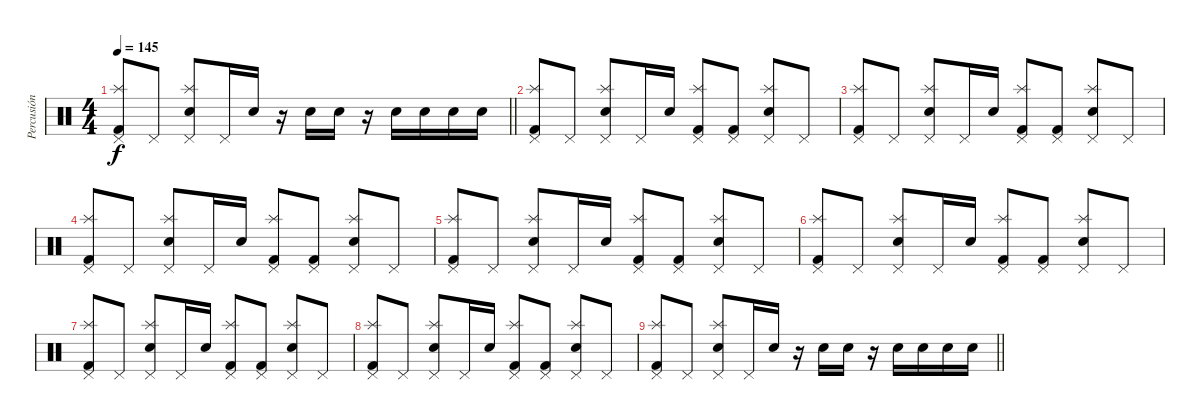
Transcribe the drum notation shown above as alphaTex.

\track ("Percusión" "Percusión") {instrument percussion}
\staff {score}
\articulation defaults
\ts (4 4)
\tempo 145
\clef neutral
\barLineRight lightlight
\ks c
("Pedal Hi-Hat (hit)" "Splash (hit)" "Kick (hit) 2").8{dy f} "Pedal Hi-Hat (hit)".8 ("Pedal Hi-Hat (hit)" "Splash (hit)" "Electric Snare (hit)").8 "Pedal Hi-Hat (hit)".16 "Electric Snare (hit)".16 r.16 "Electric Snare (hit)".16 "Electric Snare (hit)".16 r.16 "Electric Snare (hit)".16 "Electric Snare (hit)".16 "Electric Snare (hit)".16 "Electric Snare (hit)".16 |
("Pedal Hi-Hat (hit)" "Splash (hit)" "Kick (hit) 2").8 "Pedal Hi-Hat (hit)".8 ("Pedal Hi-Hat (hit)" "Splash (hit)" "Electric Snare (hit)").8 "Pedal Hi-Hat (hit)".16 "Electric Snare (hit)".16 ("Pedal Hi-Hat (hit)" "Splash (hit)" "Kick (hit) 2").8 ("Pedal Hi-Hat (hit)" "Kick (hit) 2").8 ("Pedal Hi-Hat (hit)" "Splash (hit)" "Electric Snare (hit)").8 "Pedal Hi-Hat (hit)".8 |
("Pedal Hi-Hat (hit)" "Splash (hit)" "Kick (hit) 2").8 "Pedal Hi-Hat (hit)".8 ("Pedal Hi-Hat (hit)" "Splash (hit)" "Electric Snare (hit)").8 "Pedal Hi-Hat (hit)".16 "Electric Snare (hit)".16 ("Pedal Hi-Hat (hit)" "Splash (hit)" "Kick (hit) 2").8 ("Pedal Hi-Hat (hit)" "Kick (hit) 2").8 ("Pedal Hi-Hat (hit)" "Splash (hit)" "Electric Snare (hit)").8 "Pedal Hi-Hat (hit)".8 |
("Pedal Hi-Hat (hit)" "Splash (hit)" "Kick (hit) 2").8 "Pedal Hi-Hat (hit)".8 ("Pedal Hi-Hat (hit)" "Splash (hit)" "Electric Snare (hit)").8 "Pedal Hi-Hat (hit)".16 "Electric Snare (hit)".16 ("Pedal Hi-Hat (hit)" "Splash (hit)" "Kick (hit) 2").8 ("Pedal Hi-Hat (hit)" "Kick (hit) 2").8 ("Pedal Hi-Hat (hit)" "Splash (hit)" "Electric Snare (hit)").8 "Pedal Hi-Hat (hit)".8 |
("Pedal Hi-Hat (hit)" "Splash (hit)" "Kick (hit) 2").8 "Pedal Hi-Hat (hit)".8 ("Pedal Hi-Hat (hit)" "Splash (hit)" "Electric Snare (hit)").8 "Pedal Hi-Hat (hit)".16 "Electric Snare (hit)".16 ("Pedal Hi-Hat (hit)" "Splash (hit)" "Kick (hit) 2").8 ("Pedal Hi-Hat (hit)" "Kick (hit) 2").8 ("Pedal Hi-Hat (hit)" "Splash (hit)" "Electric Snare (hit)").8 "Pedal Hi-Hat (hit)".8 |
("Pedal Hi-Hat (hit)" "Splash (hit)" "Kick (hit) 2").8 "Pedal Hi-Hat (hit)".8 ("Pedal Hi-Hat (hit)" "Splash (hit)" "Electric Snare (hit)").8 "Pedal Hi-Hat (hit)".16 "Electric Snare (hit)".16 ("Pedal Hi-Hat (hit)" "Splash (hit)" "Kick (hit) 2").8 ("Pedal Hi-Hat (hit)" "Kick (hit) 2").8 ("Pedal Hi-Hat (hit)" "Splash (hit)" "Electric Snare (hit)").8 "Pedal Hi-Hat (hit)".8 |
("Pedal Hi-Hat (hit)" "Splash (hit)" "Kick (hit) 2").8 "Pedal Hi-Hat (hit)".8 ("Pedal Hi-Hat (hit)" "Splash (hit)" "Electric Snare (hit)").8 "Pedal Hi-Hat (hit)".16 "Electric Snare (hit)".16 ("Pedal Hi-Hat (hit)" "Splash (hit)" "Kick (hit) 2").8 ("Pedal Hi-Hat (hit)" "Kick (hit) 2").8 ("Pedal Hi-Hat (hit)" "Splash (hit)" "Electric Snare (hit)").8 "Pedal Hi-Hat (hit)".8 |
("Pedal Hi-Hat (hit)" "Splash (hit)" "Kick (hit) 2").8 "Pedal Hi-Hat (hit)".8 ("Pedal Hi-Hat (hit)" "Splash (hit)" "Electric Snare (hit)").8 "Pedal Hi-Hat (hit)".16 "Electric Snare (hit)".16 ("Pedal Hi-Hat (hit)" "Splash (hit)" "Kick (hit) 2").8 ("Pedal Hi-Hat (hit)" "Kick (hit) 2").8 ("Pedal Hi-Hat (hit)" "Splash (hit)" "Electric Snare (hit)").8 "Pedal Hi-Hat (hit)".8 |
\barLineRight lightlight
("Pedal Hi-Hat (hit)" "Splash (hit)" "Kick (hit) 2").8 "Pedal Hi-Hat (hit)".8 ("Pedal Hi-Hat (hit)" "Splash (hit)" "Electric Snare (hit)").8 "Pedal Hi-Hat (hit)".16 "Electric Snare (hit)".16 r.16 "Electric Snare (hit)".16 "Electric Snare (hit)".16 r.16 "Electric Snare (hit)".16 "Electric Snare (hit)".16 "Electric Snare (hit)".16 "Electric Snare (hit)".16
